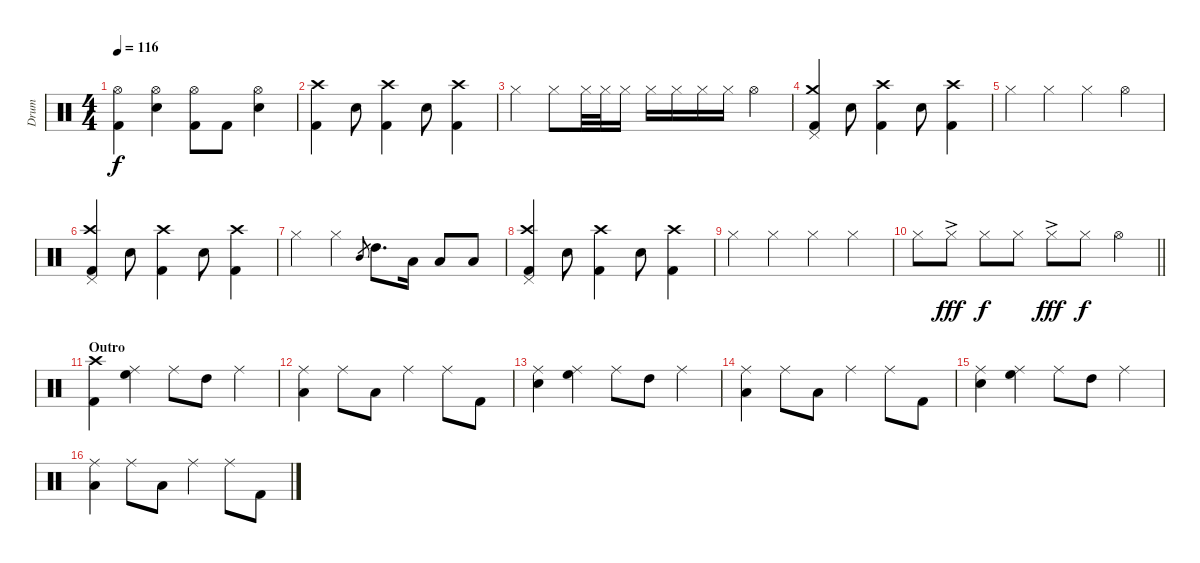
\track ("Drum" "Drum") {instrument percussion}
\staff {score}
\articulation defaults
\ts (4 4)
\tempo 116
\clef neutral
\ks c
("Hi-Hat (open)" "Kick (hit) 2").4{dy f} ("Hi-Hat (open)" "Electric Snare (hit)").4 ("Hi-Hat (open)" "Kick (hit) 2").8 "Kick (hit) 2".8 ("Hi-Hat (open)" "Electric Snare (hit)").4 |
("Crash high (hit)" "Kick (hit) 2").4 "Electric Snare (hit)".8 ("Crash high (hit)" "Kick (hit) 2").4 "Electric Snare (hit)".8 ("Crash high (hit)" "Kick (hit) 2").4 |
"Hi-Hat (closed)".4 "Hi-Hat (closed)".8 "Hi-Hat (closed)".32 "Hi-Hat (closed)".32 "Hi-Hat (closed)".16 "Hi-Hat (closed)".16 "Hi-Hat (closed)".16 "Hi-Hat (closed)".16 "Hi-Hat (closed)".16 "Hi-Hat (open)".4 |
("Crash medium (hit)" "Kick (hit) 2" "Pedal Hi-Hat (hit)").4 "Electric Snare (hit)".8 ("Crash high (hit)" "Kick (hit) 2").4 "Electric Snare (hit)".8 ("Crash high (hit)" "Kick (hit) 2").4 |
"Hi-Hat (closed)".4 "Hi-Hat (closed)".4 "Hi-Hat (closed)".4 "Hi-Hat (open)".4 |
("Crash high (hit)" "Kick (hit) 2" "Pedal Hi-Hat (hit)").4 "Electric Snare (hit)".8 ("Crash high (hit)" "Kick (hit) 2").4 "Electric Snare (hit)".8 ("Crash high (hit)" "Kick (hit) 2").4 |
"Hi-Hat (closed)".4 "Hi-Hat (closed)".4 "Mid Tom (hit)".8{gr} "High Tom (hit)".8{d} "Low Tom (hit)".16 "Low Tom (hit)".8 "Low Tom (hit)".8 |
("Crash high (hit)" "Kick (hit) 2" "Pedal Hi-Hat (hit)").4 "Electric Snare (hit)".8 ("Crash high (hit)" "Kick (hit) 2").4 "Electric Snare (hit)".8 ("Crash high (hit)" "Kick (hit) 2").4 |
"Hi-Hat (closed)".4 "Hi-Hat (closed)".4 "Hi-Hat (closed)".4 "Hi-Hat (closed)".4 |
\barLineRight lightlight "Hi-Hat (closed)".8 "Hi-Hat (closed)"{ac}.8{dy fff} "Hi-Hat (closed)".8{dy f} "Hi-Hat (closed)".8 "Hi-Hat (closed)"{ac}.8{dy fff} "Hi-Hat (closed)".8{dy f} "Hi-Hat (open)".4
|
\section ("" "Outro")
("Crash high (hit)" "Kick (hit) 2").4 ("Ride (middle)" "High Floor Tom (hit)").4 "Ride (middle)".8 "High Tom (hit)".8 "Ride (middle)".4 |
("Ride (middle)" "Low Tom (hit)").4 "Ride (middle)".8 "Low Floor Tom (hit)".8 "Ride (middle)".4 "Ride (middle)".8 "Kick (hit) 2".8 |
("Ride (middle)" "Electric Snare (hit)").4 ("Ride (middle)" "High Floor Tom (hit)").4 "Ride (middle)".8 "High Tom (hit)".8 "Ride (middle)".4 |
("Ride (middle)" "Low Tom (hit)").4 "Ride (middle)".8 "Low Floor Tom (hit)".8 "Ride (middle)".4 "Ride (middle)".8 "Kick (hit) 2".8 |
("Ride (middle)" "Electric Snare (hit)").4 ("Ride (middle)" "High Floor Tom (hit)").4 "Ride (middle)".8 "High Tom (hit)".8 "Ride (middle)".4 |
("Ride (middle)" "Low Tom (hit)").4 "Ride (middle)".8 "Low Floor Tom (hit)".8 "Ride (middle)".4 "Ride (middle)".8 "Kick (hit) 2".8
